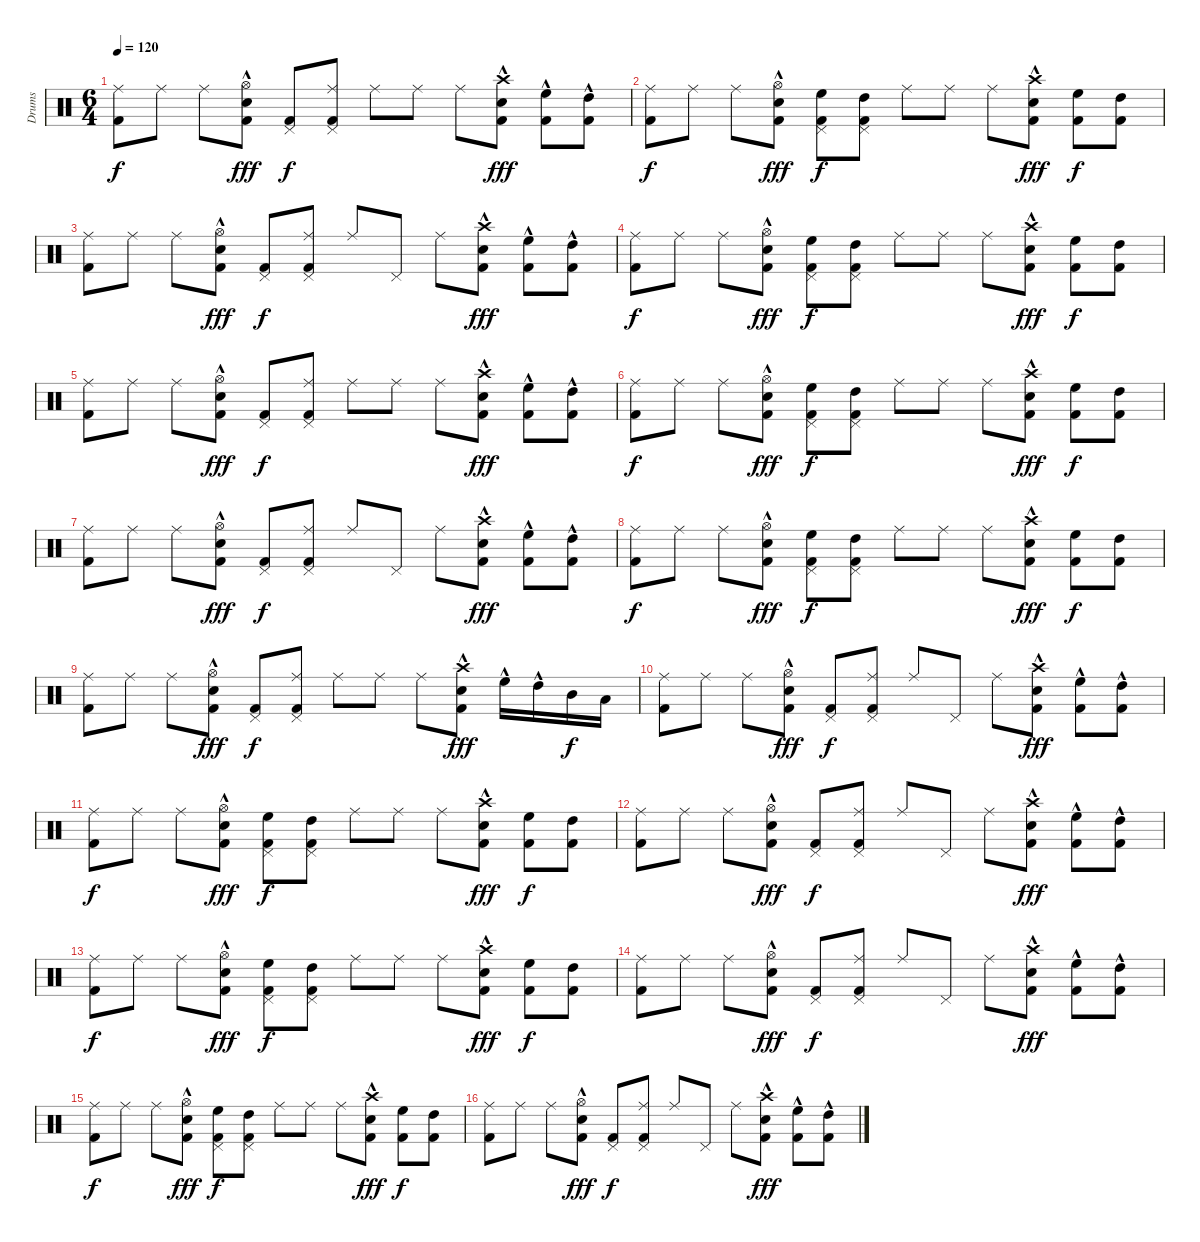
\track ("Drums" "Drums") {instrument percussion}
\staff {score}
\articulation defaults
\ts (6 4)
\tempo 120
\clef neutral
\ks c
("Ride (middle)" "Kick (hit) 2").8{dy f} "Ride (middle)".8 "Ride (middle)".8 ("Hi-Hat (open)" "Snare (hit) 2"{hac} "Kick (hit) 2").8{dy fff} ("Pedal Hi-Hat (hit)" "Kick (hit) 2").8{dy f} ("Pedal Hi-Hat (hit)" "Ride (middle)" "Kick (hit) 2").8 "Ride (middle)".8 "Ride (middle)".8 "Ride (middle)".8 ("Crash high (hit)" "Snare (hit) 2"{hac} "Kick (hit) 2").8{dy fff} ("High Floor Tom (hit)"{hac} "Kick (hit) 2").8 ("High Tom (hit)"{hac} "Kick (hit) 2").8 |
("Ride (middle)" "Kick (hit) 2").8{dy f} "Ride (middle)".8 "Ride (middle)".8 ("Hi-Hat (open)" "Snare (hit) 2"{hac} "Kick (hit) 2").8{dy fff} ("Pedal Hi-Hat (hit)" "High Floor Tom (hit)" "Kick (hit) 2").8{dy f} ("Pedal Hi-Hat (hit)" "High Tom (hit)" "Kick (hit) 2").8 "Ride (middle)".8 "Ride (middle)".8 "Ride (middle)".8 ("Crash high (hit)" "Snare (hit) 2"{hac} "Kick (hit) 2").8{dy fff} ("High Floor Tom (hit)" "Kick (hit) 2").8{dy f} ("High Tom (hit)" "Kick (hit) 2").8 |
("Ride (middle)" "Kick (hit) 2").8 "Ride (middle)".8 "Ride (middle)".8 ("Hi-Hat (open)" "Snare (hit) 2"{hac} "Kick (hit) 2").8{dy fff} ("Pedal Hi-Hat (hit)" "Kick (hit) 2").8{dy f} ("Pedal Hi-Hat (hit)" "Ride (middle)" "Kick (hit) 2").8 "Ride (middle)".8 "Pedal Hi-Hat (hit)".8 "Ride (middle)".8 ("Crash high (hit)" "Snare (hit) 2"{hac} "Kick (hit) 2").8{dy fff} ("High Floor Tom (hit)"{hac} "Kick (hit) 2").8 ("High Tom (hit)"{hac} "Kick (hit) 2").8 |
("Ride (middle)" "Kick (hit) 2").8{dy f} "Ride (middle)".8 "Ride (middle)".8 ("Hi-Hat (open)" "Snare (hit) 2"{hac} "Kick (hit) 2").8{dy fff} ("Pedal Hi-Hat (hit)" "High Floor Tom (hit)" "Kick (hit) 2").8{dy f} ("Pedal Hi-Hat (hit)" "High Tom (hit)" "Kick (hit) 2").8 "Ride (middle)".8 "Ride (middle)".8 "Ride (middle)".8 ("Crash high (hit)" "Snare (hit) 2"{hac} "Kick (hit) 2").8{dy fff} ("High Floor Tom (hit)" "Kick (hit) 2").8{dy f} ("High Tom (hit)" "Kick (hit) 2").8 |
("Ride (middle)" "Kick (hit) 2").8 "Ride (middle)".8 "Ride (middle)".8 ("Hi-Hat (open)" "Snare (hit) 2"{hac} "Kick (hit) 2").8{dy fff} ("Pedal Hi-Hat (hit)" "Kick (hit) 2").8{dy f} ("Pedal Hi-Hat (hit)" "Ride (middle)" "Kick (hit) 2").8 "Ride (middle)".8 "Ride (middle)".8 "Ride (middle)".8 ("Crash high (hit)" "Snare (hit) 2"{hac} "Kick (hit) 2").8{dy fff} ("High Floor Tom (hit)"{hac} "Kick (hit) 2").8 ("High Tom (hit)"{hac} "Kick (hit) 2").8 |
("Ride (middle)" "Kick (hit) 2").8{dy f} "Ride (middle)".8 "Ride (middle)".8 ("Hi-Hat (open)" "Snare (hit) 2"{hac} "Kick (hit) 2").8{dy fff} ("Pedal Hi-Hat (hit)" "High Floor Tom (hit)" "Kick (hit) 2").8{dy f} ("Pedal Hi-Hat (hit)" "High Tom (hit)" "Kick (hit) 2").8 "Ride (middle)".8 "Ride (middle)".8 "Ride (middle)".8 ("Crash high (hit)" "Snare (hit) 2"{hac} "Kick (hit) 2").8{dy fff} ("High Floor Tom (hit)" "Kick (hit) 2").8{dy f} ("High Tom (hit)" "Kick (hit) 2").8 |
("Ride (middle)" "Kick (hit) 2").8 "Ride (middle)".8 "Ride (middle)".8 ("Hi-Hat (open)" "Snare (hit) 2"{hac} "Kick (hit) 2").8{dy fff} ("Pedal Hi-Hat (hit)" "Kick (hit) 2").8{dy f} ("Pedal Hi-Hat (hit)" "Ride (middle)" "Kick (hit) 2").8 "Ride (middle)".8 "Pedal Hi-Hat (hit)".8 "Ride (middle)".8 ("Crash high (hit)" "Snare (hit) 2"{hac} "Kick (hit) 2").8{dy fff} ("High Floor Tom (hit)"{hac} "Kick (hit) 2").8 ("High Tom (hit)"{hac} "Kick (hit) 2").8 |
("Ride (middle)" "Kick (hit) 2").8{dy f} "Ride (middle)".8 "Ride (middle)".8 ("Hi-Hat (open)" "Snare (hit) 2"{hac} "Kick (hit) 2").8{dy fff} ("Pedal Hi-Hat (hit)" "High Floor Tom (hit)" "Kick (hit) 2").8{dy f} ("Pedal Hi-Hat (hit)" "High Tom (hit)" "Kick (hit) 2").8 "Ride (middle)".8 "Ride (middle)".8 "Ride (middle)".8 ("Crash high (hit)" "Snare (hit) 2"{hac} "Kick (hit) 2").8{dy fff} ("High Floor Tom (hit)" "Kick (hit) 2").8{dy f} ("High Tom (hit)" "Kick (hit) 2").8 |
("Ride (middle)" "Kick (hit) 2").8 "Ride (middle)".8 "Ride (middle)".8 ("Hi-Hat (open)" "Snare (hit) 2"{hac} "Kick (hit) 2").8{dy fff} ("Pedal Hi-Hat (hit)" "Kick (hit) 2").8{dy f} ("Pedal Hi-Hat (hit)" "Ride (middle)" "Kick (hit) 2").8 "Ride (middle)".8 "Ride (middle)".8 "Ride (middle)".8 ("Crash high (hit)" "Snare (hit) 2"{hac} "Kick (hit) 2").8{dy fff} "High Floor Tom (hit)"{hac}.16 "High Tom (hit)"{hac}.16 "Mid Tom (hit)".16{dy f} "Low Tom (hit)".16 |
("Ride (middle)" "Kick (hit) 2").8 "Ride (middle)".8 "Ride (middle)".8 ("Hi-Hat (open)" "Snare (hit) 2"{hac} "Kick (hit) 2").8{dy fff} ("Pedal Hi-Hat (hit)" "Kick (hit) 2").8{dy f} ("Pedal Hi-Hat (hit)" "Ride (middle)" "Kick (hit) 2").8 "Ride (middle)".8 "Pedal Hi-Hat (hit)".8 "Ride (middle)".8 ("Crash high (hit)" "Snare (hit) 2"{hac} "Kick (hit) 2").8{dy fff} ("High Floor Tom (hit)"{hac} "Kick (hit) 2").8 ("High Tom (hit)"{hac} "Kick (hit) 2").8 |
("Ride (middle)" "Kick (hit) 2").8{dy f} "Ride (middle)".8 "Ride (middle)".8 ("Hi-Hat (open)" "Snare (hit) 2"{hac} "Kick (hit) 2").8{dy fff} ("Pedal Hi-Hat (hit)" "High Floor Tom (hit)" "Kick (hit) 2").8{dy f} ("Pedal Hi-Hat (hit)" "High Tom (hit)" "Kick (hit) 2").8 "Ride (middle)".8 "Ride (middle)".8 "Ride (middle)".8 ("Crash high (hit)" "Snare (hit) 2"{hac} "Kick (hit) 2").8{dy fff} ("High Floor Tom (hit)" "Kick (hit) 2").8{dy f} ("High Tom (hit)" "Kick (hit) 2").8 |
("Ride (middle)" "Kick (hit) 2").8 "Ride (middle)".8 "Ride (middle)".8 ("Hi-Hat (open)" "Snare (hit) 2"{hac} "Kick (hit) 2").8{dy fff} ("Pedal Hi-Hat (hit)" "Kick (hit) 2").8{dy f} ("Pedal Hi-Hat (hit)" "Ride (middle)" "Kick (hit) 2").8 "Ride (middle)".8 "Pedal Hi-Hat (hit)".8 "Ride (middle)".8 ("Crash high (hit)" "Snare (hit) 2"{hac} "Kick (hit) 2").8{dy fff} ("High Floor Tom (hit)"{hac} "Kick (hit) 2").8 ("High Tom (hit)"{hac} "Kick (hit) 2").8 |
("Ride (middle)" "Kick (hit) 2").8{dy f} "Ride (middle)".8 "Ride (middle)".8 ("Hi-Hat (open)" "Snare (hit) 2"{hac} "Kick (hit) 2").8{dy fff} ("Pedal Hi-Hat (hit)" "High Floor Tom (hit)" "Kick (hit) 2").8{dy f} ("Pedal Hi-Hat (hit)" "High Tom (hit)" "Kick (hit) 2").8 "Ride (middle)".8 "Ride (middle)".8 "Ride (middle)".8 ("Crash high (hit)" "Snare (hit) 2"{hac} "Kick (hit) 2").8{dy fff} ("High Floor Tom (hit)" "Kick (hit) 2").8{dy f} ("High Tom (hit)" "Kick (hit) 2").8 |
("Ride (middle)" "Kick (hit) 2").8 "Ride (middle)".8 "Ride (middle)".8 ("Hi-Hat (open)" "Snare (hit) 2"{hac} "Kick (hit) 2").8{dy fff} ("Pedal Hi-Hat (hit)" "Kick (hit) 2").8{dy f} ("Pedal Hi-Hat (hit)" "Ride (middle)" "Kick (hit) 2").8 "Ride (middle)".8 "Pedal Hi-Hat (hit)".8 "Ride (middle)".8 ("Crash high (hit)" "Snare (hit) 2"{hac} "Kick (hit) 2").8{dy fff} ("High Floor Tom (hit)"{hac} "Kick (hit) 2").8 ("High Tom (hit)"{hac} "Kick (hit) 2").8 |
("Ride (middle)" "Kick (hit) 2").8{dy f} "Ride (middle)".8 "Ride (middle)".8 ("Hi-Hat (open)" "Snare (hit) 2"{hac} "Kick (hit) 2").8{dy fff} ("Pedal Hi-Hat (hit)" "High Floor Tom (hit)" "Kick (hit) 2").8{dy f} ("Pedal Hi-Hat (hit)" "High Tom (hit)" "Kick (hit) 2").8 "Ride (middle)".8 "Ride (middle)".8 "Ride (middle)".8 ("Crash high (hit)" "Snare (hit) 2"{hac} "Kick (hit) 2").8{dy fff} ("High Floor Tom (hit)" "Kick (hit) 2").8{dy f} ("High Tom (hit)" "Kick (hit) 2").8 |
("Ride (middle)" "Kick (hit) 2").8 "Ride (middle)".8 "Ride (middle)".8 ("Hi-Hat (open)" "Snare (hit) 2"{hac} "Kick (hit) 2").8{dy fff} ("Pedal Hi-Hat (hit)" "Kick (hit) 2").8{dy f} ("Pedal Hi-Hat (hit)" "Ride (middle)" "Kick (hit) 2").8 "Ride (middle)".8 "Pedal Hi-Hat (hit)".8 "Ride (middle)".8 ("Crash high (hit)" "Snare (hit) 2"{hac} "Kick (hit) 2").8{dy fff} ("High Floor Tom (hit)"{hac} "Kick (hit) 2").8 ("High Tom (hit)"{hac} "Kick (hit) 2").8
